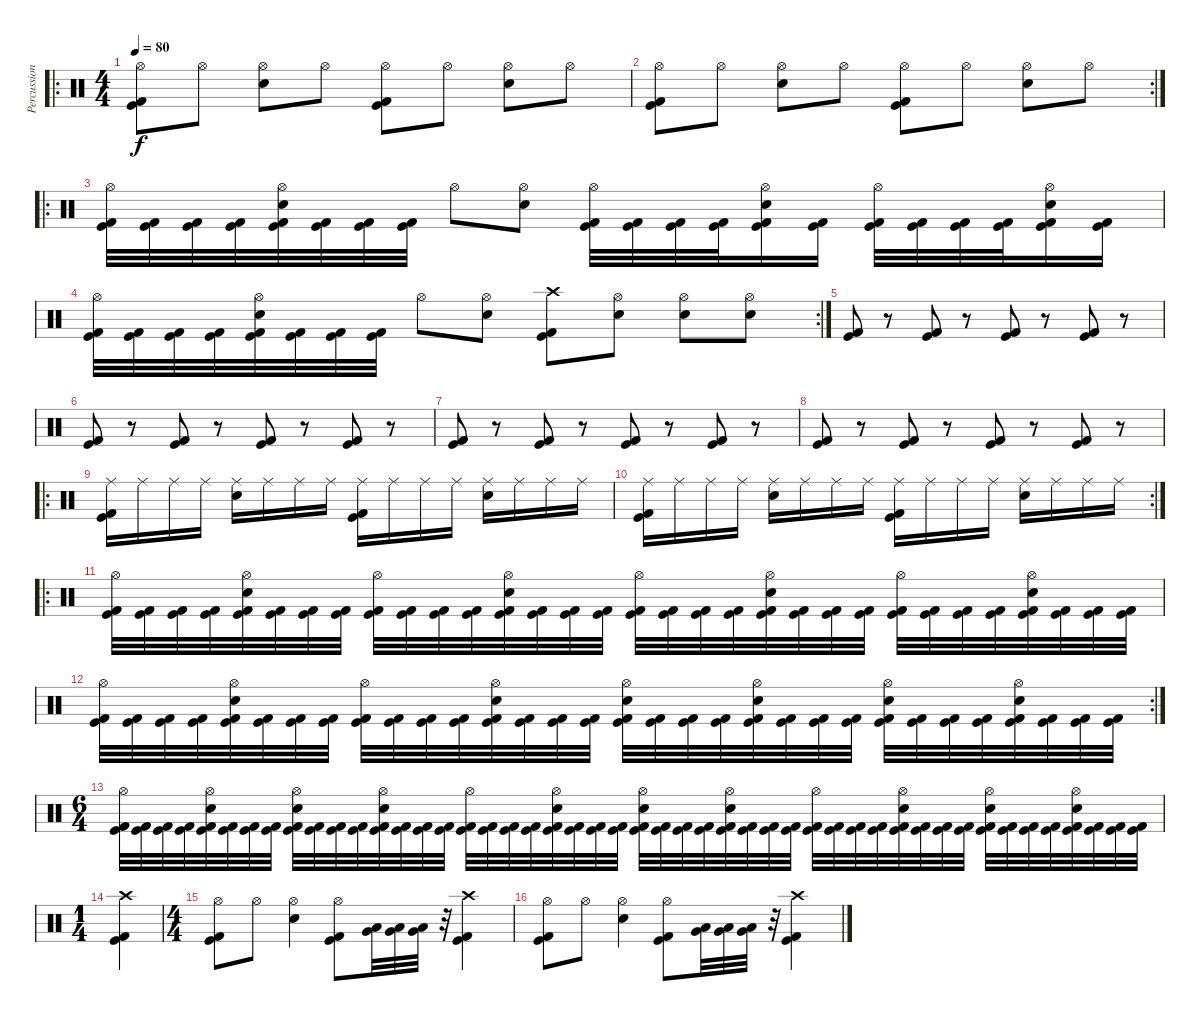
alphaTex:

\track ("Percussion" "Percussion") {instrument percussion}
\staff {score}
\articulation defaults
\ro
\ts (4 4)
\tempo 80
\clef neutral
\ks c
("Hi-Hat (open)" "Kick (hit)" "Kick (hit) 2").8{dy f} "Hi-Hat (open)".8 ("Hi-Hat (open)" "Electric Snare (hit)").8 "Hi-Hat (open)".8 ("Hi-Hat (open)" "Kick (hit) 2" "Kick (hit)").8 "Hi-Hat (open)".8 ("Hi-Hat (open)" "Electric Snare (hit)").8 "Hi-Hat (open)".8 |
\rc 2
("Hi-Hat (open)" "Kick (hit)" "Kick (hit) 2").8 "Hi-Hat (open)".8 ("Hi-Hat (open)" "Electric Snare (hit)").8 "Hi-Hat (open)".8 ("Hi-Hat (open)" "Kick (hit)" "Kick (hit) 2").8 "Hi-Hat (open)".8 ("Hi-Hat (open)" "Electric Snare (hit)").8 "Hi-Hat (open)".8 |
\ro
("Hi-Hat (open)" "Kick (hit)" "Kick (hit) 2").32 ("Kick (hit)" "Kick (hit) 2").32 ("Kick (hit)" "Kick (hit) 2").32 ("Kick (hit)" "Kick (hit) 2").32 ("Electric Snare (hit)" "Hi-Hat (open)" "Kick (hit)" "Kick (hit) 2").32 ("Kick (hit)" "Kick (hit) 2").32 ("Kick (hit)" "Kick (hit) 2").32 ("Kick (hit)" "Kick (hit) 2").32 "Hi-Hat (open)".8 ("Electric Snare (hit)" "Hi-Hat (open)").8 ("Hi-Hat (open)" "Kick (hit)" "Kick (hit) 2").32 ("Kick (hit)" "Kick (hit) 2").32 ("Kick (hit)" "Kick (hit) 2").32 ("Kick (hit)" "Kick (hit) 2").32 ("Electric Snare (hit)" "Hi-Hat (open)" "Kick (hit)" "Kick (hit) 2").16 ("Kick (hit)" "Kick (hit) 2").16 ("Hi-Hat (open)" "Kick (hit)" "Kick (hit) 2").32 ("Kick (hit)" "Kick (hit) 2").32 ("Kick (hit)" "Kick (hit) 2").32 ("Kick (hit)" "Kick (hit) 2").32 ("Electric Snare (hit)" "Hi-Hat (open)" "Kick (hit)" "Kick (hit) 2").16 ("Kick (hit)" "Kick (hit) 2").16 |
\rc 2
("Hi-Hat (open)" "Kick (hit)" "Kick (hit) 2").32 ("Kick (hit)" "Kick (hit) 2").32 ("Kick (hit)" "Kick (hit) 2").32 ("Kick (hit)" "Kick (hit) 2").32 ("Electric Snare (hit)" "Hi-Hat (open)" "Kick (hit)" "Kick (hit) 2").32 ("Kick (hit)" "Kick (hit) 2").32 ("Kick (hit)" "Kick (hit) 2").32 ("Kick (hit)" "Kick (hit) 2").32 "Hi-Hat (open)".8 ("Electric Snare (hit)" "Hi-Hat (open)").8 ("Crash high (hit)" "Kick (hit)" "Kick (hit) 2").8 ("Electric Snare (hit)" "Hi-Hat (open)").8 ("Hi-Hat (open)" "Electric Snare (hit)").8 ("Electric Snare (hit)" "Hi-Hat (open)").8 |
("Kick (hit)" "Kick (hit) 2").8 r.8 ("Kick (hit)" "Kick (hit) 2").8 r.8 ("Kick (hit)" "Kick (hit) 2").8 r.8 ("Kick (hit)" "Kick (hit) 2").8 r.8 |
("Kick (hit)" "Kick (hit) 2").8 r.8 ("Kick (hit)" "Kick (hit) 2").8 r.8 ("Kick (hit)" "Kick (hit) 2").8 r.8 ("Kick (hit)" "Kick (hit) 2").8 r.8 |
("Kick (hit)" "Kick (hit) 2").8 r.8 ("Kick (hit)" "Kick (hit) 2").8 r.8 ("Kick (hit)" "Kick (hit) 2").8 r.8 ("Kick (hit)" "Kick (hit) 2").8 r.8 |
("Kick (hit)" "Kick (hit) 2").8 r.8 ("Kick (hit)" "Kick (hit) 2").8 r.8 ("Kick (hit)" "Kick (hit) 2").8 r.8 ("Kick (hit)" "Kick (hit) 2").8 r.8 |
\ro
("Ride (middle)" "Kick (hit)" "Kick (hit) 2").16 "Ride (middle)".16 "Ride (middle)".16 "Ride (middle)".16 ("Ride (middle)" "Electric Snare (hit)").16 "Ride (middle)".16 "Ride (middle)".16 "Ride (middle)".16 ("Ride (middle)" "Kick (hit)" "Kick (hit) 2").16 "Ride (middle)".16 "Ride (middle)".16 "Ride (middle)".16 ("Ride (middle)" "Electric Snare (hit)").16 "Ride (middle)".16 "Ride (middle)".16 "Ride (middle)".16 |
\rc 2
("Ride (middle)" "Kick (hit)" "Kick (hit) 2").16 "Ride (middle)".16 "Ride (middle)".16 "Ride (middle)".16 ("Ride (middle)" "Electric Snare (hit)").16 "Ride (middle)".16 "Ride (middle)".16 "Ride (middle)".16 ("Ride (middle)" "Kick (hit)" "Kick (hit) 2").16 "Ride (middle)".16 "Ride (middle)".16 "Ride (middle)".16 ("Ride (middle)" "Electric Snare (hit)").16 "Ride (middle)".16 "Ride (middle)".16 "Ride (middle)".16 |
\ro
("Hi-Hat (open)" "Kick (hit)" "Kick (hit) 2").32 ("Kick (hit)" "Kick (hit) 2").32 ("Kick (hit)" "Kick (hit) 2").32 ("Kick (hit)" "Kick (hit) 2").32 ("Hi-Hat (open)" "Electric Snare (hit)" "Kick (hit)" "Kick (hit) 2").32 ("Kick (hit)" "Kick (hit) 2").32 ("Kick (hit)" "Kick (hit) 2").32 ("Kick (hit)" "Kick (hit) 2").32 ("Hi-Hat (open)" "Kick (hit)" "Kick (hit) 2").32 ("Kick (hit)" "Kick (hit) 2").32 ("Kick (hit)" "Kick (hit) 2").32 ("Kick (hit)" "Kick (hit) 2").32 ("Electric Snare (hit)" "Hi-Hat (open)" "Kick (hit)" "Kick (hit) 2").32 ("Kick (hit)" "Kick (hit) 2").32 ("Kick (hit)" "Kick (hit) 2").32 ("Kick (hit)" "Kick (hit) 2").32 ("Hi-Hat (open)" "Kick (hit)" "Kick (hit) 2").32 ("Kick (hit)" "Kick (hit) 2").32 ("Kick (hit)" "Kick (hit) 2").32 ("Kick (hit)" "Kick (hit) 2").32 ("Hi-Hat (open)" "Electric Snare (hit)" "Kick (hit)" "Kick (hit) 2").32 ("Kick (hit)" "Kick (hit) 2").32 ("Kick (hit)" "Kick (hit) 2").32 ("Kick (hit)" "Kick (hit) 2").32 ("Hi-Hat (open)" "Kick (hit)" "Kick (hit) 2").32 ("Kick (hit)" "Kick (hit) 2").32 ("Kick (hit)" "Kick (hit) 2").32 ("Kick (hit)" "Kick (hit) 2").32 ("Hi-Hat (open)" "Electric Snare (hit)" "Kick (hit)" "Kick (hit) 2").32 ("Kick (hit)" "Kick (hit) 2").32 ("Kick (hit)" "Kick (hit) 2").32 ("Kick (hit)" "Kick (hit) 2").32 |
\rc 2
("Hi-Hat (open)" "Kick (hit)" "Kick (hit) 2").32 ("Kick (hit)" "Kick (hit) 2").32 ("Kick (hit)" "Kick (hit) 2").32 ("Kick (hit)" "Kick (hit) 2").32 ("Hi-Hat (open)" "Electric Snare (hit)" "Kick (hit)" "Kick (hit) 2").32 ("Kick (hit)" "Kick (hit) 2").32 ("Kick (hit)" "Kick (hit) 2").32 ("Kick (hit)" "Kick (hit) 2").32 ("Hi-Hat (open)" "Kick (hit)" "Kick (hit) 2").32 ("Kick (hit)" "Kick (hit) 2").32 ("Kick (hit)" "Kick (hit) 2").32 ("Kick (hit)" "Kick (hit) 2").32 ("Hi-Hat (open)" "Electric Snare (hit)" "Kick (hit)" "Kick (hit) 2").32 ("Kick (hit)" "Kick (hit) 2").32 ("Kick (hit)" "Kick (hit) 2").32 ("Kick (hit)" "Kick (hit) 2").32 ("Hi-Hat (open)" "Electric Snare (hit)" "Kick (hit)" "Kick (hit) 2").32 ("Kick (hit)" "Kick (hit) 2").32 ("Kick (hit)" "Kick (hit) 2").32 ("Kick (hit)" "Kick (hit) 2").32 ("Hi-Hat (open)" "Electric Snare (hit)" "Kick (hit)" "Kick (hit) 2").32 ("Kick (hit)" "Kick (hit) 2").32 ("Kick (hit)" "Kick (hit) 2").32 ("Kick (hit)" "Kick (hit) 2").32 ("Hi-Hat (open)" "Electric Snare (hit)" "Kick (hit)" "Kick (hit) 2").32 ("Kick (hit)" "Kick (hit) 2").32 ("Kick (hit)" "Kick (hit) 2").32 ("Kick (hit)" "Kick (hit) 2").32 ("Hi-Hat (open)" "Electric Snare (hit)" "Kick (hit)" "Kick (hit) 2").32 ("Kick (hit)" "Kick (hit) 2").32 ("Kick (hit)" "Kick (hit) 2").32 ("Kick (hit)" "Kick (hit) 2").32 |
\ts (6 4)
("Hi-Hat (open)" "Kick (hit)" "Kick (hit) 2").32 ("Kick (hit)" "Kick (hit) 2").32 ("Kick (hit)" "Kick (hit) 2").32 ("Kick (hit)" "Kick (hit) 2").32 ("Hi-Hat (open)" "Electric Snare (hit)" "Kick (hit)" "Kick (hit) 2").32 ("Kick (hit)" "Kick (hit) 2").32 ("Kick (hit)" "Kick (hit) 2").32 ("Kick (hit)" "Kick (hit) 2").32 ("Hi-Hat (open)" "Electric Snare (hit)" "Kick (hit)" "Kick (hit) 2").32 ("Kick (hit)" "Kick (hit) 2").32 ("Kick (hit)" "Kick (hit) 2").32 ("Kick (hit)" "Kick (hit) 2").32 ("Hi-Hat (open)" "Electric Snare (hit)" "Kick (hit)" "Kick (hit) 2").32 ("Kick (hit)" "Kick (hit) 2").32 ("Kick (hit)" "Kick (hit) 2").32 ("Kick (hit)" "Kick (hit) 2").32 ("Hi-Hat (open)" "Kick (hit)" "Kick (hit) 2").32 ("Kick (hit)" "Kick (hit) 2").32 ("Kick (hit)" "Kick (hit) 2").32 ("Kick (hit)" "Kick (hit) 2").32 ("Hi-Hat (open)" "Electric Snare (hit)" "Kick (hit)" "Kick (hit) 2").32 ("Kick (hit)" "Kick (hit) 2").32 ("Kick (hit)" "Kick (hit) 2").32 ("Kick (hit)" "Kick (hit) 2").32 ("Hi-Hat (open)" "Electric Snare (hit)" "Kick (hit)" "Kick (hit) 2").32 ("Kick (hit)" "Kick (hit) 2").32 ("Kick (hit)" "Kick (hit) 2").32 ("Kick (hit)" "Kick (hit) 2").32 ("Hi-Hat (open)" "Electric Snare (hit)" "Kick (hit)" "Kick (hit) 2").32 ("Kick (hit)" "Kick (hit) 2").32 ("Kick (hit)" "Kick (hit) 2").32 ("Kick (hit)" "Kick (hit) 2").32 ("Hi-Hat (open)" "Kick (hit)" "Kick (hit) 2").32 ("Kick (hit)" "Kick (hit) 2").32 ("Kick (hit)" "Kick (hit) 2").32 ("Kick (hit)" "Kick (hit) 2").32 ("Hi-Hat (open)" "Electric Snare (hit)" "Kick (hit)" "Kick (hit) 2").32 ("Kick (hit)" "Kick (hit) 2").32 ("Kick (hit)" "Kick (hit) 2").32 ("Kick (hit)" "Kick (hit) 2").32 ("Hi-Hat (open)" "Electric Snare (hit)" "Kick (hit)" "Kick (hit) 2").32 ("Kick (hit)" "Kick (hit) 2").32 ("Kick (hit)" "Kick (hit) 2").32 ("Kick (hit)" "Kick (hit) 2").32 ("Hi-Hat (open)" "Electric Snare (hit)" "Kick (hit)" "Kick (hit) 2").32 ("Kick (hit)" "Kick (hit) 2").32 ("Kick (hit)" "Kick (hit) 2").32 ("Kick (hit)" "Kick (hit) 2").32 |
\ts (1 4)
("Crash high (hit)" "Kick (hit)" "Kick (hit) 2").4 |
\ts (4 4)
("Hi-Hat (open)" "Kick (hit)" "Kick (hit) 2").8 "Hi-Hat (open)".8 ("Hi-Hat (open)" "Electric Snare (hit)").4 ("Hi-Hat (open)" "Kick (hit)" "Kick (hit) 2").8 ("Low Floor Tom (hit)" "Very Low Tom (hit)").32 ("Low Floor Tom (hit)" "Very Low Tom (hit)").32 ("Low Floor Tom (hit)" "Very Low Tom (hit)").32 r.32 ("Crash high (hit)" "Kick (hit)" "Kick (hit) 2").4 |
("Hi-Hat (open)" "Kick (hit)" "Kick (hit) 2").8 "Hi-Hat (open)".8 ("Hi-Hat (open)" "Electric Snare (hit)").4 ("Hi-Hat (open)" "Kick (hit)" "Kick (hit) 2").8 ("Low Floor Tom (hit)" "Very Low Tom (hit)").32 ("Low Floor Tom (hit)" "Very Low Tom (hit)").32 ("Low Floor Tom (hit)" "Very Low Tom (hit)").32 r.32 ("Crash high (hit)" "Kick (hit)" "Kick (hit) 2").4
